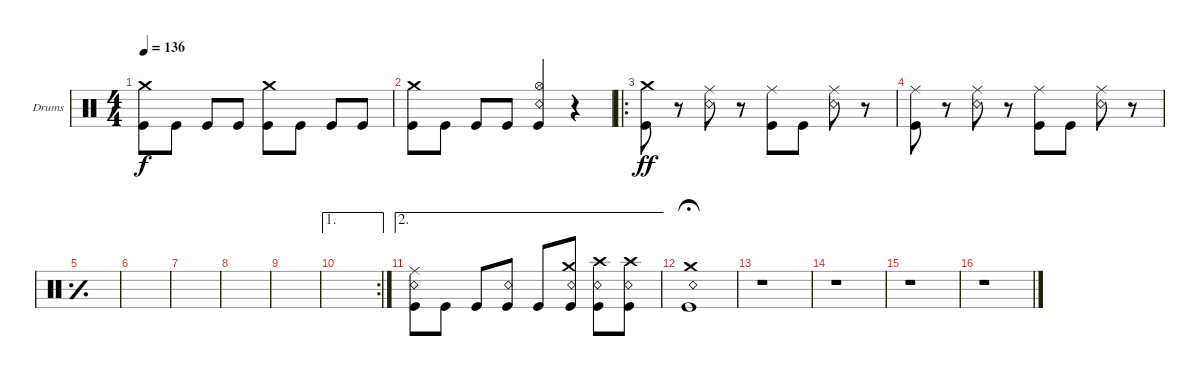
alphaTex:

\defaultSystemsLayout 4
\bracketExtendMode groupsimilarinstruments
\firstSystemTrackNameOrientation horizontal
\otherSystemsTrackNameOrientation horizontal
\track ("Drums" "Drums") {instrument percussion}
\staff {score}
\articulation defaults
\ts (4 4)
\tempo 136
\clef neutral
\ks c
("Kick (hit)" "Crash medium (hit)").8{dy f} "Kick (hit)".8 "Kick (hit)".8 "Kick (hit)".8 ("Kick (hit)" "Crash medium (hit)").8 "Kick (hit)".8 "Kick (hit)".8 "Kick (hit)".8 |
("Kick (hit)" "Crash medium (hit)").8 "Kick (hit)".8 "Kick (hit)".8 "Kick (hit)".8 ("Kick (hit)" "Hi-Hat (open)" "Snare (rim shot)").4 r.4 |
\ro
("Kick (hit)" "Crash medium (hit)").8{dy ff} r.8 ("Ride (middle)" "Snare (rim shot)").8 r.8 ("Ride (middle)" "Kick (hit)").8 "Kick (hit)".8 ("Ride (middle)" "Snare (rim shot)").8 r.8 |
("Kick (hit)" "Ride (middle)").8 r.8 ("Ride (middle)" "Snare (rim shot)").8 r.8 ("Ride (middle)" "Kick (hit)").8 "Kick (hit)".8 ("Ride (middle)" "Snare (rim shot)").8 r.8 |
\simile simple
|
|
|
|
|
\ae 1
\rc 2
|
\ae 2
\simile none
("Kick (hit)" "Ride (middle)" "Snare (rim shot)").8 "Kick (hit)".8 "Kick (hit)".8 ("Snare (rim shot)" "Kick (hit)").8 "Kick (hit)".8 ("Snare (rim shot)" "Kick (hit)" "Crash medium (hit)").8 ("Snare (rim shot)" "Kick (hit)" "Crash high (hit)").8 ("Snare (rim shot)" "Kick (hit)" "Crash high (hit)").8 |
("Crash medium (hit)" "Kick (hit)" "Snare (rim shot)").1{fermata (medium 1)} |
r.1 |
r.1 |
r.1 |
r.1
